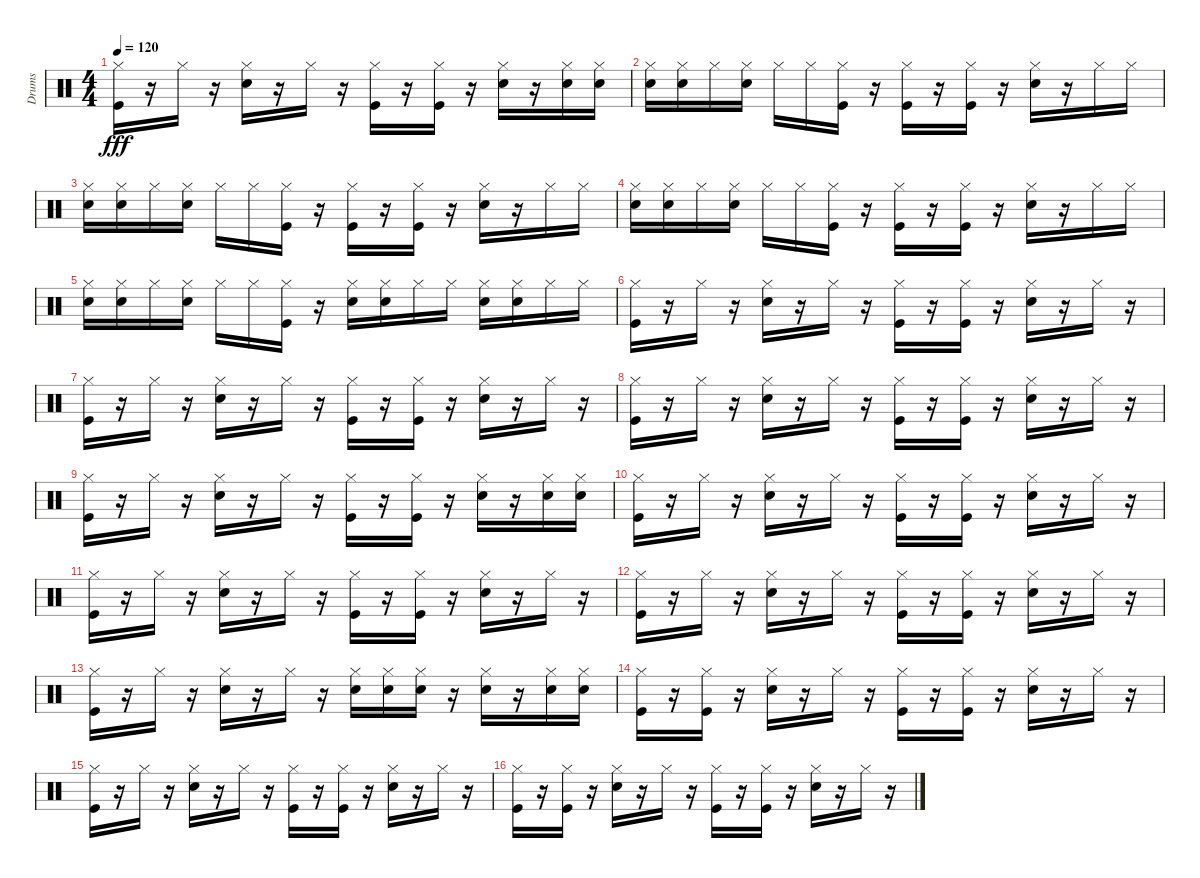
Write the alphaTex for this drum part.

\track ("Drums" "Drums") {instrument percussion}
\staff {score}
\articulation defaults
\ts (4 4)
\tempo 120
\clef neutral
\ks c
("Kick (hit)" "Hi-Hat (closed)").16{dy fff} r.16 "Hi-Hat (closed)".16 r.16 ("Snare (hit) 2" "Hi-Hat (closed)").16 r.16 "Hi-Hat (closed)".16 r.16 ("Kick (hit)" "Hi-Hat (closed)").16 r.16 ("Kick (hit)" "Hi-Hat (closed)").16 r.16 ("Snare (hit) 2" "Hi-Hat (closed)").16 r.16 ("Snare (hit) 2" "Hi-Hat (closed)").16 ("Snare (hit) 2" "Hi-Hat (closed)").16 |
("Snare (hit) 2" "Hi-Hat (closed)").16 ("Snare (hit) 2" "Hi-Hat (closed)").16 "Hi-Hat (closed)".16 ("Snare (hit) 2" "Hi-Hat (closed)").16 "Hi-Hat (closed)".16 "Hi-Hat (closed)".16 ("Kick (hit)" "Hi-Hat (closed)").16 r.16 ("Kick (hit)" "Hi-Hat (closed)").16 r.16 ("Kick (hit)" "Hi-Hat (closed)").16 r.16 ("Snare (hit) 2" "Hi-Hat (closed)").16 r.16 "Hi-Hat (closed)".16 "Hi-Hat (closed)".16 |
("Snare (hit) 2" "Hi-Hat (closed)").16 ("Snare (hit) 2" "Hi-Hat (closed)").16 "Hi-Hat (closed)".16 ("Snare (hit) 2" "Hi-Hat (closed)").16 "Hi-Hat (closed)".16 "Hi-Hat (closed)".16 ("Kick (hit)" "Hi-Hat (closed)").16 r.16 ("Kick (hit)" "Hi-Hat (closed)").16 r.16 ("Kick (hit)" "Hi-Hat (closed)").16 r.16 ("Snare (hit) 2" "Hi-Hat (closed)").16 r.16 "Hi-Hat (closed)".16 "Hi-Hat (closed)".16 |
("Snare (hit) 2" "Hi-Hat (closed)").16 ("Snare (hit) 2" "Hi-Hat (closed)").16 "Hi-Hat (closed)".16 ("Snare (hit) 2" "Hi-Hat (closed)").16 "Hi-Hat (closed)".16 "Hi-Hat (closed)".16 ("Kick (hit)" "Hi-Hat (closed)").16 r.16 ("Kick (hit)" "Hi-Hat (closed)").16 r.16 ("Kick (hit)" "Hi-Hat (closed)").16 r.16 ("Snare (hit) 2" "Hi-Hat (closed)").16 r.16 "Hi-Hat (closed)".16 "Hi-Hat (closed)".16 |
("Snare (hit) 2" "Hi-Hat (closed)").16 ("Snare (hit) 2" "Hi-Hat (closed)").16 "Hi-Hat (closed)".16 ("Snare (hit) 2" "Hi-Hat (closed)").16 "Hi-Hat (closed)".16 "Hi-Hat (closed)".16 ("Kick (hit)" "Hi-Hat (closed)").16 r.16 ("Snare (hit) 2" "Hi-Hat (closed)").16 ("Snare (hit) 2" "Hi-Hat (closed)").16 "Hi-Hat (closed)".16 "Hi-Hat (closed)".16 ("Snare (hit) 2" "Hi-Hat (closed)").16 ("Snare (hit) 2" "Hi-Hat (closed)").16 "Hi-Hat (closed)".16 "Hi-Hat (closed)".16 |
("Kick (hit)" "Hi-Hat (closed)").16 r.16 "Hi-Hat (closed)".16 r.16 ("Snare (hit) 2" "Hi-Hat (closed)").16 r.16 "Hi-Hat (closed)".16 r.16 ("Kick (hit)" "Hi-Hat (closed)").16 r.16 ("Kick (hit)" "Hi-Hat (closed)").16 r.16 ("Snare (hit) 2" "Hi-Hat (closed)").16 r.16 "Hi-Hat (closed)".16 r.16 |
("Kick (hit)" "Hi-Hat (closed)").16 r.16 "Hi-Hat (closed)".16 r.16 ("Snare (hit) 2" "Hi-Hat (closed)").16 r.16 "Hi-Hat (closed)".16 r.16 ("Kick (hit)" "Hi-Hat (closed)").16 r.16 ("Kick (hit)" "Hi-Hat (closed)").16 r.16 ("Snare (hit) 2" "Hi-Hat (closed)").16 r.16 "Hi-Hat (closed)".16 r.16 |
("Kick (hit)" "Hi-Hat (closed)").16 r.16 "Hi-Hat (closed)".16 r.16 ("Snare (hit) 2" "Hi-Hat (closed)").16 r.16 "Hi-Hat (closed)".16 r.16 ("Kick (hit)" "Hi-Hat (closed)").16 r.16 ("Kick (hit)" "Hi-Hat (closed)").16 r.16 ("Snare (hit) 2" "Hi-Hat (closed)").16 r.16 "Hi-Hat (closed)".16 r.16 |
("Kick (hit)" "Hi-Hat (closed)").16 r.16 "Hi-Hat (closed)".16 r.16 ("Snare (hit) 2" "Hi-Hat (closed)").16 r.16 "Hi-Hat (closed)".16 r.16 ("Kick (hit)" "Hi-Hat (closed)").16 r.16 ("Kick (hit)" "Hi-Hat (closed)").16 r.16 ("Snare (hit) 2" "Hi-Hat (closed)").16 r.16 ("Snare (hit) 2" "Hi-Hat (closed)").16 ("Snare (hit) 2" "Hi-Hat (closed)").16 |
("Kick (hit)" "Hi-Hat (closed)").16 r.16 "Hi-Hat (closed)".16 r.16 ("Snare (hit) 2" "Hi-Hat (closed)").16 r.16 "Hi-Hat (closed)".16 r.16 ("Kick (hit)" "Hi-Hat (closed)").16 r.16 ("Kick (hit)" "Hi-Hat (closed)").16 r.16 ("Snare (hit) 2" "Hi-Hat (closed)").16 r.16 "Hi-Hat (closed)".16 r.16 |
("Kick (hit)" "Hi-Hat (closed)").16 r.16 "Hi-Hat (closed)".16 r.16 ("Snare (hit) 2" "Hi-Hat (closed)").16 r.16 "Hi-Hat (closed)".16 r.16 ("Kick (hit)" "Hi-Hat (closed)").16 r.16 ("Kick (hit)" "Hi-Hat (closed)").16 r.16 ("Snare (hit) 2" "Hi-Hat (closed)").16 r.16 "Hi-Hat (closed)".16 r.16 |
("Kick (hit)" "Hi-Hat (closed)").16 r.16 "Hi-Hat (closed)".16 r.16 ("Snare (hit) 2" "Hi-Hat (closed)").16 r.16 "Hi-Hat (closed)".16 r.16 ("Kick (hit)" "Hi-Hat (closed)").16 r.16 ("Kick (hit)" "Hi-Hat (closed)").16 r.16 ("Snare (hit) 2" "Hi-Hat (closed)").16 r.16 "Hi-Hat (closed)".16 r.16 |
("Kick (hit)" "Hi-Hat (closed)").16 r.16 "Hi-Hat (closed)".16 r.16 ("Snare (hit) 2" "Hi-Hat (closed)").16 r.16 "Hi-Hat (closed)".16 r.16 ("Snare (hit) 2" "Hi-Hat (closed)").16 ("Snare (hit) 2" "Hi-Hat (closed)").16 ("Snare (hit) 2" "Hi-Hat (closed)").16 r.16 ("Snare (hit) 2" "Hi-Hat (closed)").16 r.16 ("Snare (hit) 2" "Hi-Hat (closed)").16 ("Snare (hit) 2" "Hi-Hat (closed)").16 |
("Kick (hit)" "Hi-Hat (closed)").16 r.16 ("Kick (hit)" "Hi-Hat (closed)").16 r.16 ("Snare (hit) 2" "Hi-Hat (closed)").16 r.16 "Hi-Hat (closed)".16 r.16 ("Kick (hit)" "Hi-Hat (closed)").16 r.16 ("Kick (hit)" "Hi-Hat (closed)").16 r.16 ("Snare (hit) 2" "Hi-Hat (closed)").16 r.16 "Hi-Hat (closed)".16 r.16 |
("Kick (hit)" "Hi-Hat (closed)").16 r.16 "Hi-Hat (closed)".16 r.16 ("Snare (hit) 2" "Hi-Hat (closed)").16 r.16 "Hi-Hat (closed)".16 r.16 ("Kick (hit)" "Hi-Hat (closed)").16 r.16 ("Kick (hit)" "Hi-Hat (closed)").16 r.16 ("Snare (hit) 2" "Hi-Hat (closed)").16 r.16 "Hi-Hat (closed)".16 r.16 |
("Kick (hit)" "Hi-Hat (closed)").16 r.16 ("Kick (hit)" "Hi-Hat (closed)").16 r.16 ("Snare (hit) 2" "Hi-Hat (closed)").16 r.16 "Hi-Hat (closed)".16 r.16 ("Kick (hit)" "Hi-Hat (closed)").16 r.16 ("Kick (hit)" "Hi-Hat (closed)").16 r.16 ("Snare (hit) 2" "Hi-Hat (closed)").16 r.16 "Hi-Hat (closed)".16 r.16
